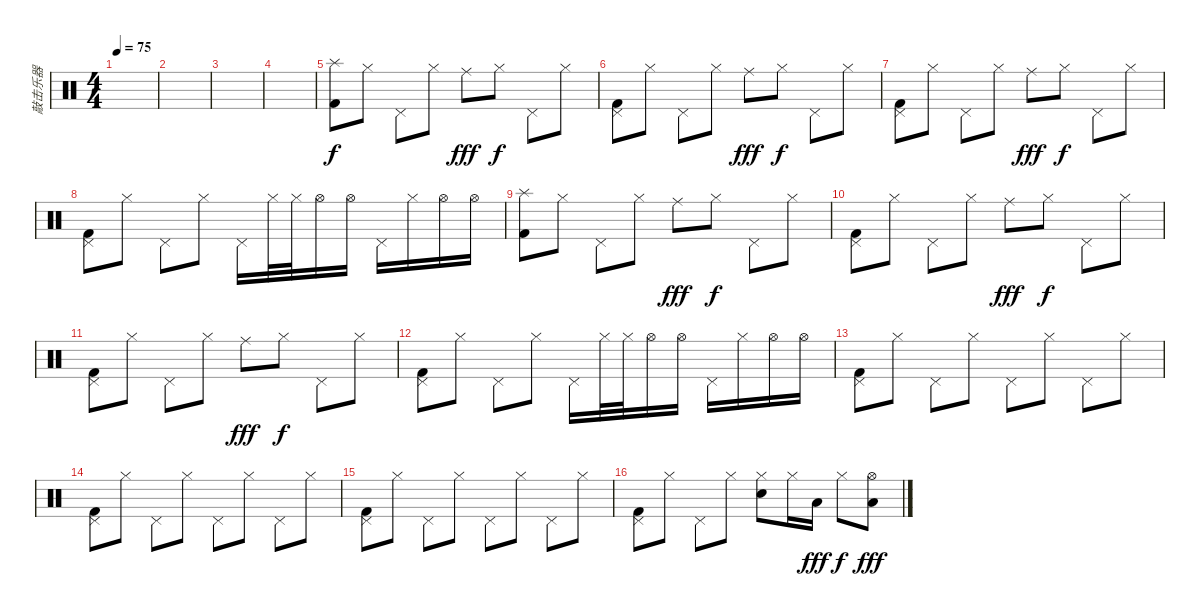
\track ("敲击乐器" "敲击乐器") {instrument percussion}
\staff {score}
\articulation defaults
\ts (4 4)
\tempo 75
\clef neutral
\ks c
|
|
|
|
("Splash (hit)" "Kick (hit) 2").8 "Hi-Hat (closed)".8 "Pedal Hi-Hat (hit)".8 "Hi-Hat (closed)".8 "Ride (middle)".8{dy fff} "Hi-Hat (closed)".8{dy f} "Pedal Hi-Hat (hit)".8 "Hi-Hat (closed)".8 |
("Pedal Hi-Hat (hit)" "Kick (hit) 2").8 "Hi-Hat (closed)".8 "Pedal Hi-Hat (hit)".8 "Hi-Hat (closed)".8 "Ride (middle)".8{dy fff} "Hi-Hat (closed)".8{dy f} "Pedal Hi-Hat (hit)".8 "Hi-Hat (closed)".8 |
("Pedal Hi-Hat (hit)" "Kick (hit) 2").8 "Hi-Hat (closed)".8 "Pedal Hi-Hat (hit)".8 "Hi-Hat (closed)".8 "Ride (middle)".8{dy fff} "Hi-Hat (closed)".8{dy f} "Pedal Hi-Hat (hit)".8 "Hi-Hat (closed)".8 |
("Pedal Hi-Hat (hit)" "Kick (hit) 2").8 "Hi-Hat (closed)".8 "Pedal Hi-Hat (hit)".8 "Hi-Hat (closed)".8 "Pedal Hi-Hat (hit)".16 "Hi-Hat (closed)".32 "Hi-Hat (closed)".32 "Hi-Hat (open)".16 "Hi-Hat (open)".16 "Pedal Hi-Hat (hit)".16 "Hi-Hat (closed)".16 "Hi-Hat (open)".16 "Hi-Hat (open)".16 |
("Splash (hit)" "Kick (hit) 2").8 "Hi-Hat (closed)".8 "Pedal Hi-Hat (hit)".8 "Hi-Hat (closed)".8 "Ride (middle)".8{dy fff} "Hi-Hat (closed)".8{dy f} "Pedal Hi-Hat (hit)".8 "Hi-Hat (closed)".8 |
("Pedal Hi-Hat (hit)" "Kick (hit) 2").8 "Hi-Hat (closed)".8 "Pedal Hi-Hat (hit)".8 "Hi-Hat (closed)".8 "Ride (middle)".8{dy fff} "Hi-Hat (closed)".8{dy f} "Pedal Hi-Hat (hit)".8 "Hi-Hat (closed)".8 |
("Pedal Hi-Hat (hit)" "Kick (hit) 2").8 "Hi-Hat (closed)".8 "Pedal Hi-Hat (hit)".8 "Hi-Hat (closed)".8 "Ride (middle)".8{dy fff} "Hi-Hat (closed)".8{dy f} "Pedal Hi-Hat (hit)".8 "Hi-Hat (closed)".8 |
("Pedal Hi-Hat (hit)" "Kick (hit) 2").8 "Hi-Hat (closed)".8 "Pedal Hi-Hat (hit)".8 "Hi-Hat (closed)".8 "Pedal Hi-Hat (hit)".16 "Hi-Hat (closed)".32 "Hi-Hat (closed)".32 "Hi-Hat (open)".16 "Hi-Hat (open)".16 "Pedal Hi-Hat (hit)".16 "Hi-Hat (closed)".16 "Hi-Hat (open)".16 "Hi-Hat (open)".16 |
("Pedal Hi-Hat (hit)" "Kick (hit) 2").8 "Hi-Hat (closed)".8 "Pedal Hi-Hat (hit)".8 "Hi-Hat (closed)".8 "Pedal Hi-Hat (hit)".8 "Hi-Hat (closed)".8 "Pedal Hi-Hat (hit)".8 "Hi-Hat (closed)".8 |
("Pedal Hi-Hat (hit)" "Kick (hit) 2").8 "Hi-Hat (closed)".8 "Pedal Hi-Hat (hit)".8 "Hi-Hat (closed)".8 "Pedal Hi-Hat (hit)".8 "Hi-Hat (closed)".8 "Pedal Hi-Hat (hit)".8 "Hi-Hat (closed)".8 |
("Pedal Hi-Hat (hit)" "Kick (hit) 2").8 "Hi-Hat (closed)".8 "Pedal Hi-Hat (hit)".8 "Hi-Hat (closed)".8 "Pedal Hi-Hat (hit)".8 "Hi-Hat (closed)".8 "Pedal Hi-Hat (hit)".8 "Hi-Hat (closed)".8 |
("Pedal Hi-Hat (hit)" "Kick (hit) 2").8 "Hi-Hat (closed)".8 "Pedal Hi-Hat (hit)".8 "Hi-Hat (closed)".8 ("Hi-Hat (closed)" "Electric Snare (hit)").8 "Hi-Hat (closed)".16 "Low Tom (hit)".16{dy fff} "Hi-Hat (closed)".8{dy f} ("Hi-Hat (open)" "Low Floor Tom (hit)").8{dy fff}
